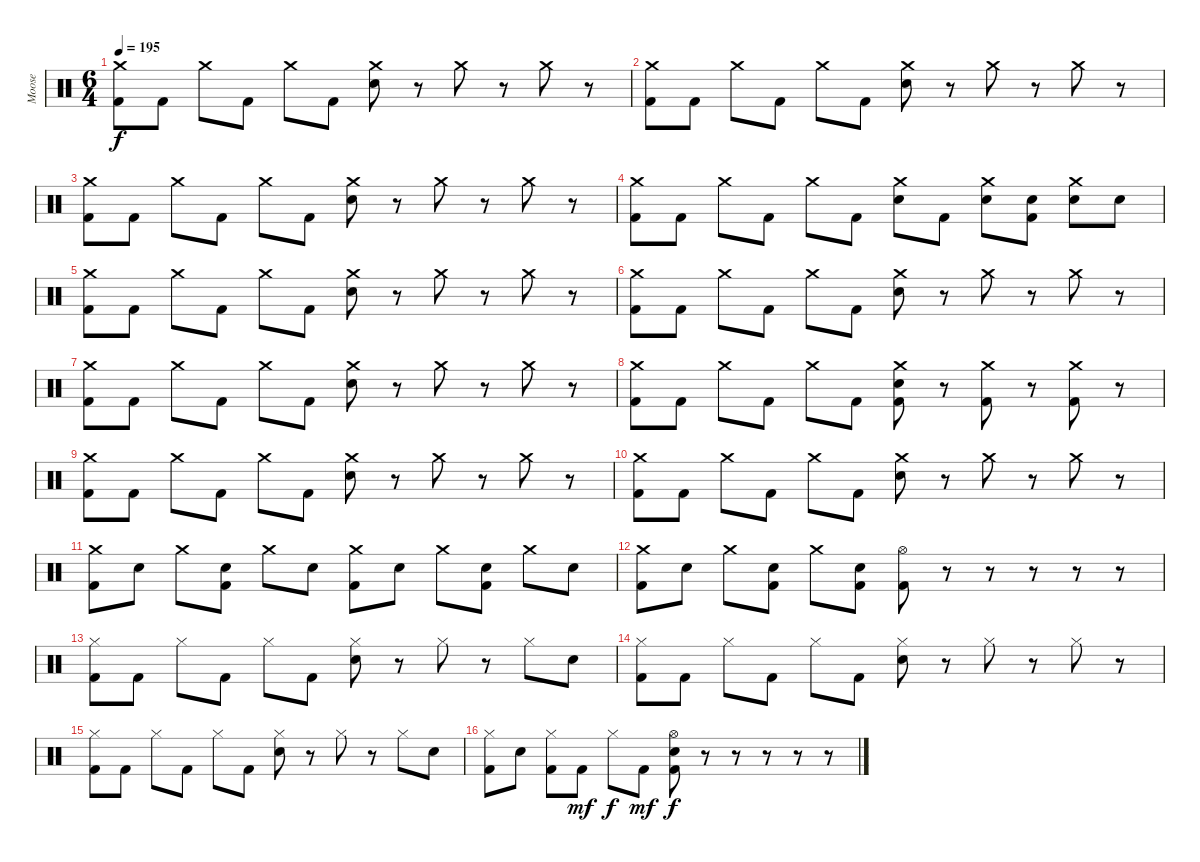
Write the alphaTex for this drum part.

\track ("Moose" "Moose") {instrument percussion}
\staff {score}
\articulation defaults
\ts (6 4)
\tempo 195
\clef neutral
\ks c
("Crash medium (hit)" "Kick (hit) 2").8{dy f} "Kick (hit) 2".8 "Crash medium (hit)".8 "Kick (hit) 2".8 "Crash medium (hit)".8 "Kick (hit) 2".8 ("Crash medium (hit)" "Electric Snare (hit)").8 r.8 "Crash medium (hit)".8 r.8 "Crash medium (hit)".8 r.8 |
("Crash medium (hit)" "Kick (hit) 2").8 "Kick (hit) 2".8 "Crash medium (hit)".8 "Kick (hit) 2".8 "Crash medium (hit)".8 "Kick (hit) 2".8 ("Crash medium (hit)" "Electric Snare (hit)").8 r.8 "Crash medium (hit)".8 r.8 "Crash medium (hit)".8 r.8 |
("Crash medium (hit)" "Kick (hit) 2").8 "Kick (hit) 2".8 "Crash medium (hit)".8 "Kick (hit) 2".8 "Crash medium (hit)".8 "Kick (hit) 2".8 ("Crash medium (hit)" "Electric Snare (hit)").8 r.8 "Crash medium (hit)".8 r.8 "Crash medium (hit)".8 r.8 |
("Crash medium (hit)" "Kick (hit) 2").8 "Kick (hit) 2".8 "Crash medium (hit)".8 "Kick (hit) 2".8 "Crash medium (hit)".8 "Kick (hit) 2".8 ("Crash medium (hit)" "Electric Snare (hit)").8 "Kick (hit) 2".8 ("Crash medium (hit)" "Electric Snare (hit)").8 ("Electric Snare (hit)" "Kick (hit) 2").8 ("Crash medium (hit)" "Electric Snare (hit)").8 "Electric Snare (hit)".8 |
("Crash medium (hit)" "Kick (hit) 2").8 "Kick (hit) 2".8 "Crash medium (hit)".8 "Kick (hit) 2".8 "Crash medium (hit)".8 "Kick (hit) 2".8 ("Crash medium (hit)" "Electric Snare (hit)").8 r.8 "Crash medium (hit)".8 r.8 "Crash medium (hit)".8 r.8 |
("Crash medium (hit)" "Kick (hit) 2").8 "Kick (hit) 2".8 "Crash medium (hit)".8 "Kick (hit) 2".8 "Crash medium (hit)".8 "Kick (hit) 2".8 ("Crash medium (hit)" "Electric Snare (hit)").8 r.8 "Crash medium (hit)".8 r.8 "Crash medium (hit)".8 r.8 |
("Crash medium (hit)" "Kick (hit) 2").8 "Kick (hit) 2".8 "Crash medium (hit)".8 "Kick (hit) 2".8 "Crash medium (hit)".8 "Kick (hit) 2".8 ("Crash medium (hit)" "Electric Snare (hit)").8 r.8 "Crash medium (hit)".8 r.8 "Crash medium (hit)".8 r.8 |
("Crash medium (hit)" "Kick (hit) 2").8 "Kick (hit) 2".8 "Crash medium (hit)".8 "Kick (hit) 2".8 "Crash medium (hit)".8 "Kick (hit) 2".8 ("Crash medium (hit)" "Electric Snare (hit)" "Kick (hit) 2").8 r.8 ("Crash medium (hit)" "Kick (hit) 2").8 r.8 ("Crash medium (hit)" "Kick (hit) 2").8 r.8 |
("Crash medium (hit)" "Kick (hit) 2").8 "Kick (hit) 2".8 "Crash medium (hit)".8 "Kick (hit) 2".8 "Crash medium (hit)".8 "Kick (hit) 2".8 ("Crash medium (hit)" "Electric Snare (hit)").8 r.8 "Crash medium (hit)".8 r.8 "Crash medium (hit)".8 r.8 |
("Crash medium (hit)" "Kick (hit) 2").8 "Kick (hit) 2".8 "Crash medium (hit)".8 "Kick (hit) 2".8 "Crash medium (hit)".8 "Kick (hit) 2".8 ("Crash medium (hit)" "Electric Snare (hit)").8 r.8 "Crash medium (hit)".8 r.8 "Crash medium (hit)".8 r.8 |
("Crash medium (hit)" "Kick (hit) 2").8 "Electric Snare (hit)".8 "Crash medium (hit)".8 ("Electric Snare (hit)" "Kick (hit) 2").8 "Crash medium (hit)".8 "Electric Snare (hit)".8 ("Crash medium (hit)" "Kick (hit) 2").8 "Electric Snare (hit)".8 "Crash medium (hit)".8 ("Electric Snare (hit)" "Kick (hit) 2").8 "Crash medium (hit)".8 "Electric Snare (hit)".8 |
("Crash medium (hit)" "Kick (hit) 2").8 "Electric Snare (hit)".8 "Crash medium (hit)".8 ("Electric Snare (hit)" "Kick (hit) 2").8 "Crash medium (hit)".8 ("Electric Snare (hit)" "Kick (hit) 2").8 ("Hi-Hat (open)" "Kick (hit) 2").8 r.8 r.8 r.8 r.8 r.8 |
("Hi-Hat (closed)" "Kick (hit) 2").8 "Kick (hit) 2".8 "Hi-Hat (closed)".8 "Kick (hit) 2".8 "Hi-Hat (closed)".8 "Kick (hit) 2".8 ("Hi-Hat (closed)" "Electric Snare (hit)").8 r.8 "Hi-Hat (closed)".8 r.8 "Hi-Hat (closed)".8 "Electric Snare (hit)".8 |
("Hi-Hat (closed)" "Kick (hit) 2").8 "Kick (hit) 2".8 "Hi-Hat (closed)".8 "Kick (hit) 2".8 "Hi-Hat (closed)".8 "Kick (hit) 2".8 ("Hi-Hat (closed)" "Electric Snare (hit)").8 r.8 "Hi-Hat (closed)".8 r.8 "Hi-Hat (closed)".8 r.8 |
("Hi-Hat (closed)" "Kick (hit) 2").8 "Kick (hit) 2".8 "Hi-Hat (closed)".8 "Kick (hit) 2".8 "Hi-Hat (closed)".8 "Kick (hit) 2".8 ("Hi-Hat (closed)" "Electric Snare (hit)").8 r.8 "Hi-Hat (closed)".8 r.8 "Hi-Hat (closed)".8 "Electric Snare (hit)".8 |
("Hi-Hat (closed)" "Kick (hit) 2").8 "Electric Snare (hit)".8 ("Hi-Hat (closed)" "Kick (hit) 2").8 "Kick (hit) 2".8{dy mf} "Hi-Hat (closed)".8{dy f} "Kick (hit) 2".8{dy mf} ("Hi-Hat (open)" "Electric Snare (hit)" "Kick (hit) 2").8{dy f} r.8 r.8 r.8 r.8 r.8
